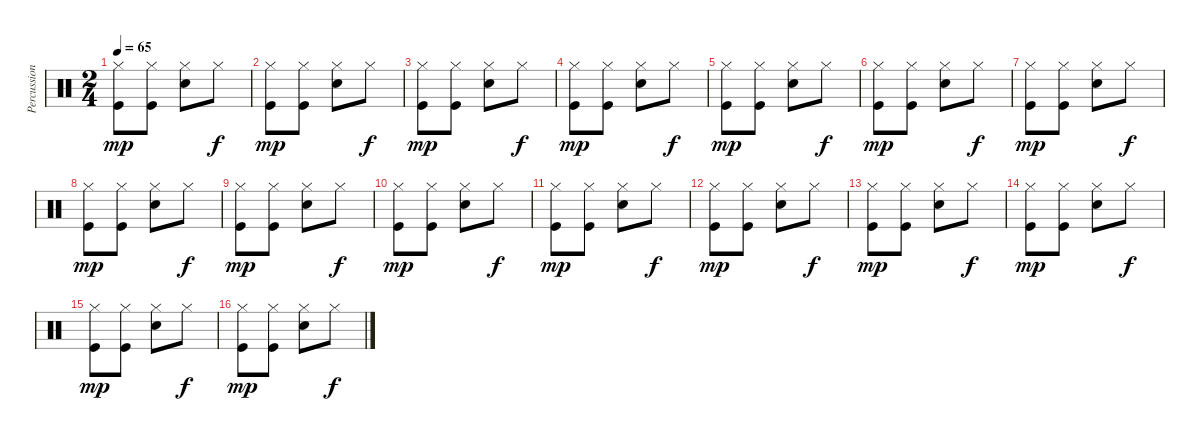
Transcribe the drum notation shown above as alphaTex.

\track ("Percussions" "Percussion") {instrument percussion}
\staff {score}
\articulation defaults
\ts (2 4)
\tempo 65
\clef neutral
\ks c
("Hi-Hat (closed)" "Kick (hit)").8{dy mp} ("Hi-Hat (closed)" "Kick (hit)").8 ("Hi-Hat (closed)" "Electric Snare (hit)").8 "Hi-Hat (closed)".8{dy f} |
("Hi-Hat (closed)" "Kick (hit)").8{dy mp} ("Hi-Hat (closed)" "Kick (hit)").8 ("Hi-Hat (closed)" "Electric Snare (hit)").8 "Hi-Hat (closed)".8{dy f} |
("Hi-Hat (closed)" "Kick (hit)").8{dy mp} ("Hi-Hat (closed)" "Kick (hit)").8 ("Hi-Hat (closed)" "Electric Snare (hit)").8 "Hi-Hat (closed)".8{dy f} |
("Hi-Hat (closed)" "Kick (hit)").8{dy mp} ("Hi-Hat (closed)" "Kick (hit)").8 ("Hi-Hat (closed)" "Electric Snare (hit)").8 "Hi-Hat (closed)".8{dy f} |
("Hi-Hat (closed)" "Kick (hit)").8{dy mp} ("Hi-Hat (closed)" "Kick (hit)").8 ("Hi-Hat (closed)" "Electric Snare (hit)").8 "Hi-Hat (closed)".8{dy f} |
("Hi-Hat (closed)" "Kick (hit)").8{dy mp} ("Hi-Hat (closed)" "Kick (hit)").8 ("Hi-Hat (closed)" "Electric Snare (hit)").8 "Hi-Hat (closed)".8{dy f} |
("Hi-Hat (closed)" "Kick (hit)").8{dy mp} ("Hi-Hat (closed)" "Kick (hit)").8 ("Hi-Hat (closed)" "Electric Snare (hit)").8 "Hi-Hat (closed)".8{dy f} |
("Hi-Hat (closed)" "Kick (hit)").8{dy mp} ("Hi-Hat (closed)" "Kick (hit)").8 ("Hi-Hat (closed)" "Electric Snare (hit)").8 "Hi-Hat (closed)".8{dy f} |
("Hi-Hat (closed)" "Kick (hit)").8{dy mp} ("Hi-Hat (closed)" "Kick (hit)").8 ("Hi-Hat (closed)" "Electric Snare (hit)").8 "Hi-Hat (closed)".8{dy f} |
("Hi-Hat (closed)" "Kick (hit)").8{dy mp} ("Hi-Hat (closed)" "Kick (hit)").8 ("Hi-Hat (closed)" "Electric Snare (hit)").8 "Hi-Hat (closed)".8{dy f} |
("Hi-Hat (closed)" "Kick (hit)").8{dy mp} ("Hi-Hat (closed)" "Kick (hit)").8 ("Hi-Hat (closed)" "Electric Snare (hit)").8 "Hi-Hat (closed)".8{dy f} |
("Hi-Hat (closed)" "Kick (hit)").8{dy mp} ("Hi-Hat (closed)" "Kick (hit)").8 ("Hi-Hat (closed)" "Electric Snare (hit)").8 "Hi-Hat (closed)".8{dy f} |
("Hi-Hat (closed)" "Kick (hit)").8{dy mp} ("Hi-Hat (closed)" "Kick (hit)").8 ("Hi-Hat (closed)" "Electric Snare (hit)").8 "Hi-Hat (closed)".8{dy f} |
("Hi-Hat (closed)" "Kick (hit)").8{dy mp} ("Hi-Hat (closed)" "Kick (hit)").8 ("Hi-Hat (closed)" "Electric Snare (hit)").8 "Hi-Hat (closed)".8{dy f} |
("Hi-Hat (closed)" "Kick (hit)").8{dy mp} ("Hi-Hat (closed)" "Kick (hit)").8 ("Hi-Hat (closed)" "Electric Snare (hit)").8 "Hi-Hat (closed)".8{dy f} |
("Hi-Hat (closed)" "Kick (hit)").8{dy mp} ("Hi-Hat (closed)" "Kick (hit)").8 ("Hi-Hat (closed)" "Electric Snare (hit)").8 "Hi-Hat (closed)".8{dy f}
